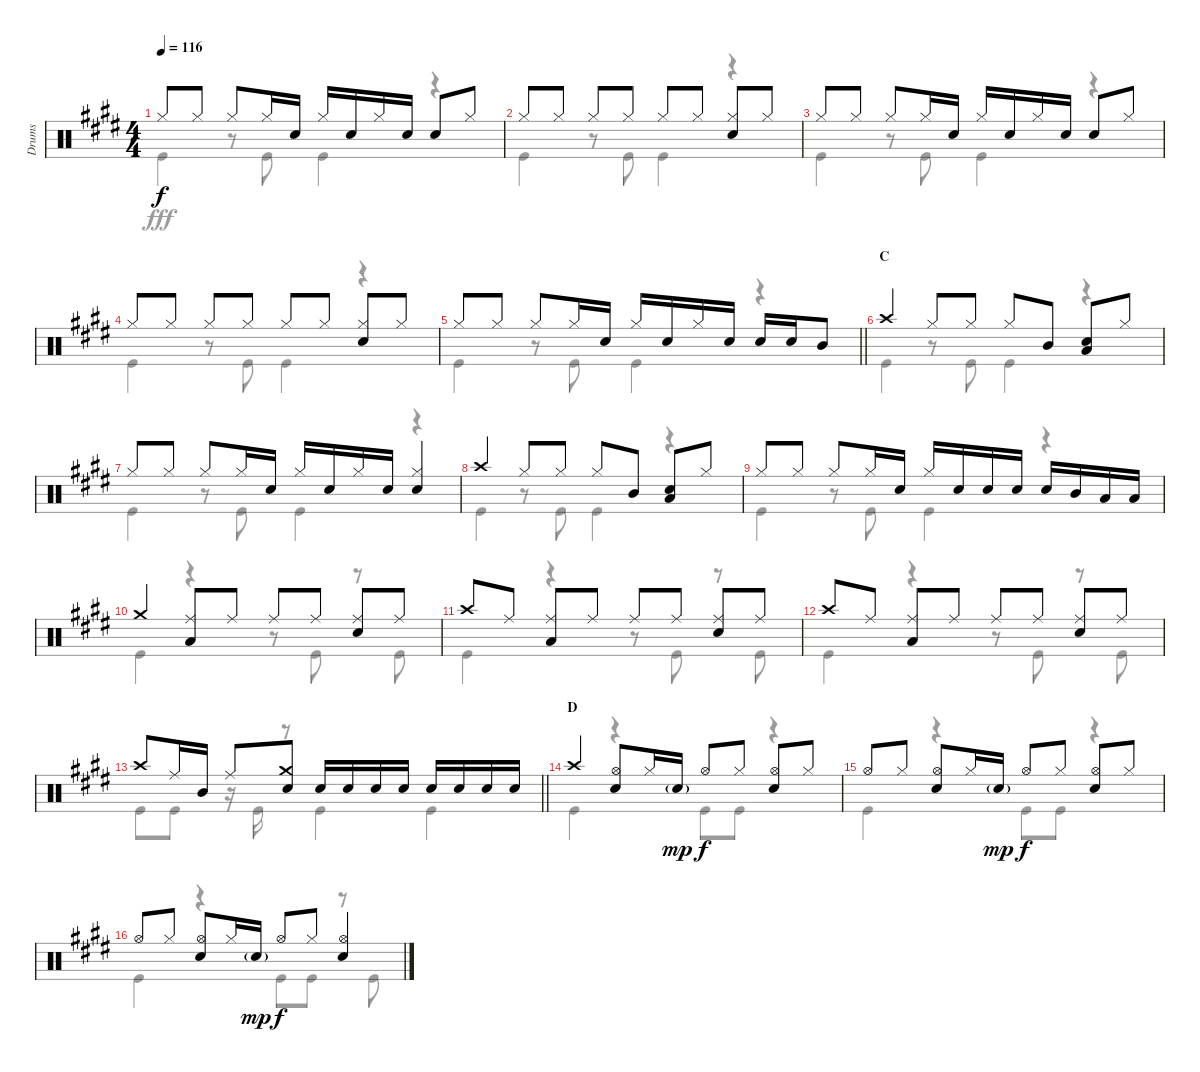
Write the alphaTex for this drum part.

\track ("Drums" "Drums") {instrument percussion}
\staff {score}
\articulation defaults
\voice
\ts (4 4)
\tempo 116
\clef neutral
\ks e "Hi-Hat (closed)".8{dy f} "Hi-Hat (closed)".8 "Hi-Hat (closed)".8 "Hi-Hat (closed)".16 "Snare (hit) 2".16 "Hi-Hat (closed)".16 "Snare (hit) 2".16 "Hi-Hat (closed)".16 "Snare (hit) 2".16 "Snare (hit) 2".8 "Hi-Hat (closed)".8
|
"Hi-Hat (closed)".8 "Hi-Hat (closed)".8 "Hi-Hat (closed)".8 "Hi-Hat (closed)".8 "Hi-Hat (closed)".8 "Hi-Hat (closed)".8 ("Hi-Hat (closed)" "Snare (hit) 2").8 "Hi-Hat (closed)".8 |
"Hi-Hat (closed)".8 "Hi-Hat (closed)".8 "Hi-Hat (closed)".8 "Hi-Hat (closed)".16 "Snare (hit) 2".16 "Hi-Hat (closed)".16 "Snare (hit) 2".16 "Hi-Hat (closed)".16 "Snare (hit) 2".16 "Snare (hit) 2".8 "Hi-Hat (closed)".8 |
"Hi-Hat (closed)".8 "Hi-Hat (closed)".8 "Hi-Hat (closed)".8 "Hi-Hat (closed)".8 "Hi-Hat (closed)".8 "Hi-Hat (closed)".8 ("Hi-Hat (closed)" "Snare (hit) 2").8 "Hi-Hat (closed)".8 |
\barLineRight lightlight "Hi-Hat (closed)".8 "Hi-Hat (closed)".8 "Hi-Hat (closed)".8 "Hi-Hat (closed)".16 "Snare (hit) 2".16 "Hi-Hat (closed)".16 "Snare (hit) 2".16 "Hi-Hat (closed)".16 "Snare (hit) 2".16 "Snare (hit) 2".16 "Snare (hit) 2".16 "Mid Tom (hit)".8
|
\section ("" "C")
"Crash high (hit)".4 "Hi-Hat (closed)".8 "Hi-Hat (closed)".8 "Hi-Hat (closed)".8 "Mid Tom (hit)".8 ("Snare (hit) 2" "Low Tom (hit)").8 "Hi-Hat (closed)".8 |
"Hi-Hat (closed)".8 "Hi-Hat (closed)".8 "Hi-Hat (closed)".8 "Hi-Hat (closed)".16 "Snare (hit) 2".16 "Hi-Hat (closed)".16 "Snare (hit) 2".16 "Hi-Hat (closed)".16 "Snare (hit) 2".16 ("Snare (hit) 2" "Hi-Hat (closed)").4 |
"Crash high (hit)".4 "Hi-Hat (closed)".8 "Hi-Hat (closed)".8 "Hi-Hat (closed)".8 "Mid Tom (hit)".8 ("Snare (hit) 2" "Low Tom (hit)").8 "Hi-Hat (closed)".8 |
"Hi-Hat (closed)".8 "Hi-Hat (closed)".8 "Hi-Hat (closed)".8 "Hi-Hat (closed)".16 "Snare (hit) 2".16 "Hi-Hat (closed)".16 "Snare (hit) 2".16 "Snare (hit) 2".16 "Snare (hit) 2".16 "Snare (hit) 2".16 "Mid Tom (hit)".16 "Low Tom (hit)".16 "Low Tom (hit)".16 |
"Crash medium (hit)".4 ("Ride (middle)" "Low Tom (hit)").8 "Ride (middle)".8 "Ride (middle)".8 "Ride (middle)".8 ("Ride (middle)" "Snare (hit) 2").8 "Ride (middle)".8 |
"Crash high (hit)".8 "Ride (middle)".8 ("Ride (middle)" "Low Tom (hit)").8 "Ride (middle)".8 "Ride (middle)".8 "Ride (middle)".8 ("Ride (middle)" "Snare (hit) 2").8 "Ride (middle)".8 |
"Crash high (hit)".8 "Ride (middle)".8 ("Ride (middle)" "Low Tom (hit)").8 "Ride (middle)".8 "Ride (middle)".8 "Ride (middle)".8 ("Ride (middle)" "Snare (hit) 2").8 "Ride (middle)".8 |
\barLineRight lightlight "Crash high (hit)".8 "Ride (middle)".16 "Mid Tom (hit)".16 "Ride (middle)".8
("Crash medium (hit)" "Snare (hit) 2").8 "Snare (hit) 2".16 "Snare (hit) 2".16 "Snare (hit) 2".16 "Snare (hit) 2".16 "Snare (hit) 2".16 "Snare (hit) 2".16 "Snare (hit) 2".16 "Snare (hit) 2".16 |
\section ("" "D")
"Crash high (hit)".4 ("Hi-Hat (open)" "Snare (hit) 2").8 "Hi-Hat (closed)".16 "Snare (hit) 2"{g}.16{dy mp} "Hi-Hat (open)".8{dy f} "Hi-Hat (closed)".8 ("Snare (hit) 2" "Hi-Hat (open)").8 "Hi-Hat (closed)".8 |
"Hi-Hat (open)".8 "Hi-Hat (closed)".8 ("Hi-Hat (open)" "Snare (hit) 2").8 "Hi-Hat (closed)".16 "Snare (hit) 2"{g}.16{dy mp} "Hi-Hat (open)".8{dy f} "Hi-Hat (closed)".8 ("Hi-Hat (open)" "Snare (hit) 2").8 "Hi-Hat (closed)".8 |
"Hi-Hat (open)".8 "Hi-Hat (closed)".8 ("Hi-Hat (open)" "Snare (hit) 2").8 "Hi-Hat (closed)".16 "Snare (hit) 2"{g}.16{dy mp} "Hi-Hat (open)".8{dy f} "Hi-Hat (closed)".8 ("Hi-Hat (open)" "Snare (hit) 2").4
\voice
\clef neutral
\ottava regular
\simile none
\ks e "Kick (hit)".4{dy fff}
r.8 "Kick (hit)".8 "Kick (hit)".4 r.4 |
"Kick (hit)".4 r.8 "Kick (hit)".8 "Kick (hit)".4 r.4 |
"Kick (hit)".4 r.8 "Kick (hit)".8 "Kick (hit)".4 r.4 |
"Kick (hit)".4 r.8 "Kick (hit)".8 "Kick (hit)".4 r.4 |
\barLineRight lightlight "Kick (hit)".4
r.8 "Kick (hit)".8 "Kick (hit)".4 r.4 |
"Kick (hit)".4 r.8 "Kick (hit)".8 "Kick (hit)".4 r.4 |
"Kick (hit)".4 r.8 "Kick (hit)".8 "Kick (hit)".4 r.4 |
"Kick (hit)".4 r.8 "Kick (hit)".8 "Kick (hit)".4 r.4 |
"Kick (hit)".4 r.8 "Kick (hit)".8 "Kick (hit)".4 r.4 |
"Kick (hit)".4 r.4 r.8 "Kick (hit)".8 r.8 "Kick (hit)".8 |
"Kick (hit)".4 r.4 r.8 "Kick (hit)".8 r.8 "Kick (hit)".8 |
"Kick (hit)".4 r.4 r.8 "Kick (hit)".8 r.8 "Kick (hit)".8 |
\barLineRight lightlight "Kick (hit)".8 "Kick (hit)".8
r.16 "Kick (hit)".16 r.8 "Kick (hit)".4 "Kick (hit)".4 |
"Kick (hit)".4 r.4 "Kick (hit)".8 "Kick (hit)".8 r.4 |
"Kick (hit)".4 r.4 "Kick (hit)".8 "Kick (hit)".8 r.4 |
"Kick (hit)".4 r.4 "Kick (hit)".8 "Kick (hit)".8 r.8 "Kick (hit)".8
